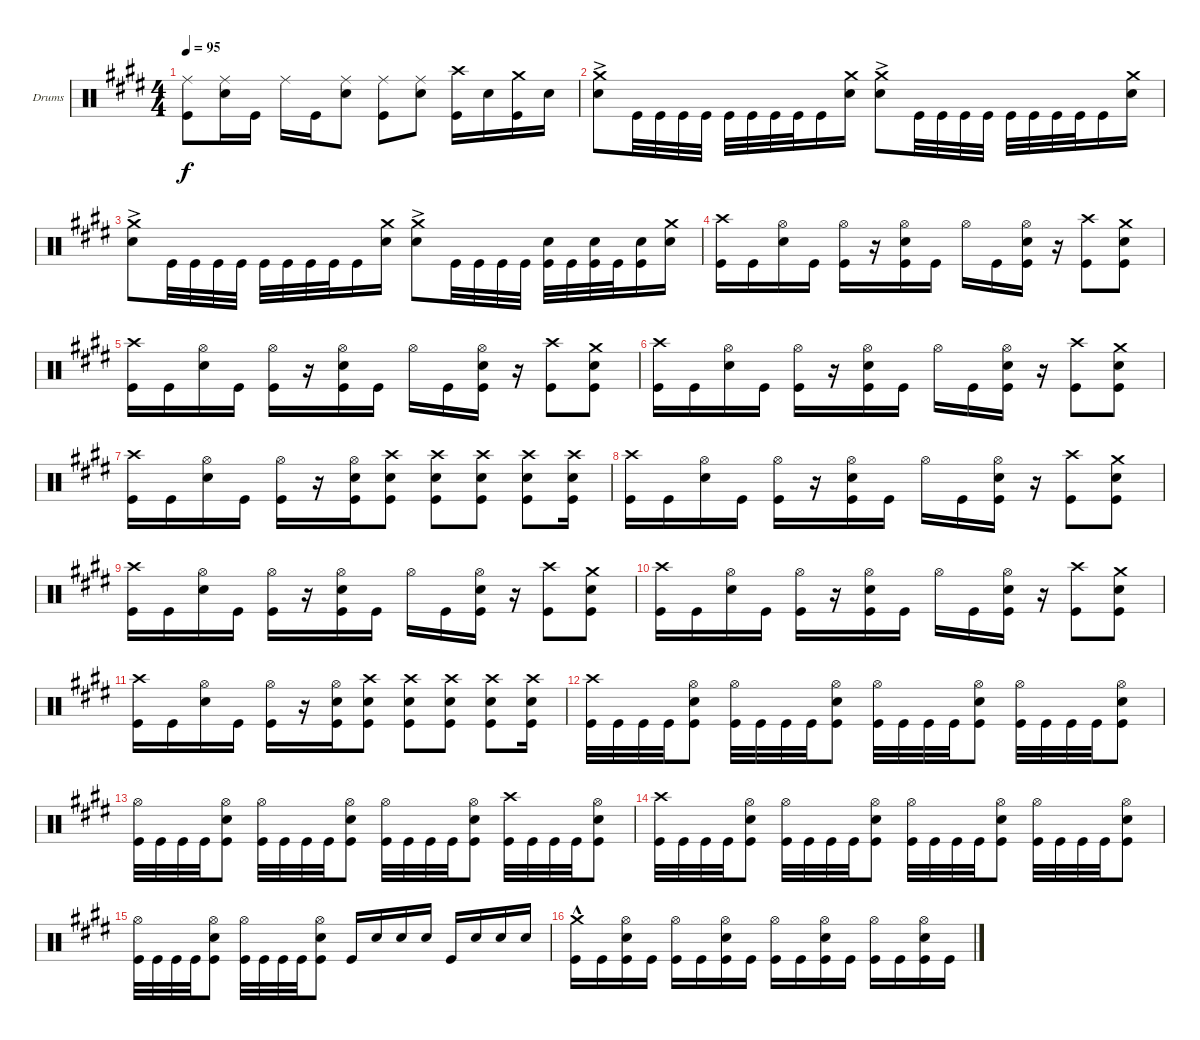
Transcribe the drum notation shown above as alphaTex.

\bracketExtendMode groupsimilarinstruments
\firstSystemTrackNameOrientation horizontal
\otherSystemsTrackNameOrientation horizontal
\track ("Drumkit" "Drums") {instrument percussion}
\staff {score}
\articulation defaults
\ts (4 4)
\tempo 95
\clef neutral
\ks c#minor
("Kick (hit)" "Ride (middle)").8{dy f} ("Snare (hit) 2" "Ride (middle)").16 "Kick (hit)".16 "Ride (middle)".16 "Kick (hit)".16 ("Snare (hit) 2" "Ride (middle)").8 ("Kick (hit)" "Ride (middle)").8 ("Snare (hit) 2" "Ride (middle)").8 ("Crash high (hit)" "Kick (hit)").16 "Snare (hit) 2".16 ("Crash medium (hit)" "Kick (hit)").16 "Snare (hit) 2".16 |
("Crash medium (hit)"{ac} "Snare (hit) 2").8 "Kick (hit)".32 "Kick (hit)".32 "Kick (hit)".32 "Kick (hit)".32 "Kick (hit)".32 "Kick (hit)".32 "Kick (hit)".32 "Kick (hit)".32 "Kick (hit)".16 ("Snare (hit) 2" "Crash medium (hit)").16 ("Crash medium (hit)"{ac} "Snare (hit) 2").8 "Kick (hit)".32 "Kick (hit)".32 "Kick (hit)".32 "Kick (hit)".32 "Kick (hit)".32 "Kick (hit)".32 "Kick (hit)".32 "Kick (hit)".32 "Kick (hit)".16 ("Snare (hit) 2" "Crash medium (hit)").16 |
("Crash medium (hit)"{ac} "Snare (hit) 2").8 "Kick (hit)".32 "Kick (hit)".32 "Kick (hit)".32 "Kick (hit)".32 "Kick (hit)".32 "Kick (hit)".32 "Kick (hit)".32 "Kick (hit)".32 "Kick (hit)".16 ("Snare (hit) 2" "Crash medium (hit)").16 ("Crash medium (hit)"{ac} "Snare (hit) 2").8 "Kick (hit)".32 "Kick (hit)".32 "Kick (hit)".32 "Kick (hit)".32 ("Kick (hit)" "Snare (hit) 2").32 "Kick (hit)".32 ("Kick (hit)" "Snare (hit) 2").32 "Kick (hit)".32 ("Kick (hit)" "Snare (hit) 2").16 ("Snare (hit) 2" "Crash medium (hit)").16 |
("Kick (hit)" "Crash high (hit)").16 "Kick (hit)".16 ("Snare (hit) 2" "Hi-Hat (open)").16 "Kick (hit)".16 ("Kick (hit)" "Hi-Hat (open)").16 r.16 ("Kick (hit)" "Hi-Hat (open)" "Snare (hit) 2").16 "Kick (hit)".16 "Hi-Hat (open)".16 "Kick (hit)".16 ("Kick (hit)" "Hi-Hat (open)" "Snare (hit) 2").16 r.16 ("Kick (hit)" "Crash high (hit)").8 ("Snare (hit) 2" "Kick (hit)" "Crash medium (hit)").8 |
("Kick (hit)" "Crash high (hit)").16 "Kick (hit)".16 ("Snare (hit) 2" "Hi-Hat (open)").16 "Kick (hit)".16 ("Kick (hit)" "Hi-Hat (open)").16 r.16 ("Kick (hit)" "Hi-Hat (open)" "Snare (hit) 2").16 "Kick (hit)".16 "Hi-Hat (open)".16 "Kick (hit)".16 ("Kick (hit)" "Hi-Hat (open)" "Snare (hit) 2").16 r.16 ("Kick (hit)" "Crash high (hit)").8 ("Snare (hit) 2" "Kick (hit)" "Crash medium (hit)").8 |
("Kick (hit)" "Crash high (hit)").16 "Kick (hit)".16 ("Snare (hit) 2" "Hi-Hat (open)").16 "Kick (hit)".16 ("Kick (hit)" "Hi-Hat (open)").16 r.16 ("Kick (hit)" "Hi-Hat (open)" "Snare (hit) 2").16 "Kick (hit)".16 "Hi-Hat (open)".16 "Kick (hit)".16 ("Kick (hit)" "Hi-Hat (open)" "Snare (hit) 2").16 r.16 ("Kick (hit)" "Crash high (hit)").8 ("Snare (hit) 2" "Kick (hit)" "Crash medium (hit)").8 |
("Kick (hit)" "Crash high (hit)").16 "Kick (hit)".16 ("Snare (hit) 2" "Hi-Hat (open)").16 "Kick (hit)".16 ("Kick (hit)" "Hi-Hat (open)").16 r.16 ("Kick (hit)" "Hi-Hat (open)" "Snare (hit) 2").16 ("Snare (hit) 2" "Kick (hit)" "Crash high (hit)").8 ("Snare (hit) 2" "Kick (hit)" "Crash high (hit)").8 ("Snare (hit) 2" "Kick (hit)" "Crash high (hit)").8 ("Snare (hit) 2" "Kick (hit)" "Crash high (hit)").8 ("Snare (hit) 2" "Kick (hit)" "Crash high (hit)").16 |
("Kick (hit)" "Crash high (hit)").16 "Kick (hit)".16 ("Snare (hit) 2" "Hi-Hat (open)").16 "Kick (hit)".16 ("Kick (hit)" "Hi-Hat (open)").16 r.16 ("Kick (hit)" "Hi-Hat (open)" "Snare (hit) 2").16 "Kick (hit)".16 "Hi-Hat (open)".16 "Kick (hit)".16 ("Kick (hit)" "Hi-Hat (open)" "Snare (hit) 2").16 r.16 ("Kick (hit)" "Crash high (hit)").8 ("Snare (hit) 2" "Kick (hit)" "Crash medium (hit)").8 |
("Kick (hit)" "Crash high (hit)").16 "Kick (hit)".16 ("Snare (hit) 2" "Hi-Hat (open)").16 "Kick (hit)".16 ("Kick (hit)" "Hi-Hat (open)").16 r.16 ("Kick (hit)" "Hi-Hat (open)" "Snare (hit) 2").16 "Kick (hit)".16 "Hi-Hat (open)".16 "Kick (hit)".16 ("Kick (hit)" "Hi-Hat (open)" "Snare (hit) 2").16 r.16 ("Kick (hit)" "Crash high (hit)").8 ("Snare (hit) 2" "Kick (hit)" "Crash medium (hit)").8 |
("Kick (hit)" "Crash high (hit)").16 "Kick (hit)".16 ("Snare (hit) 2" "Hi-Hat (open)").16 "Kick (hit)".16 ("Kick (hit)" "Hi-Hat (open)").16 r.16 ("Kick (hit)" "Hi-Hat (open)" "Snare (hit) 2").16 "Kick (hit)".16 "Hi-Hat (open)".16 "Kick (hit)".16 ("Kick (hit)" "Hi-Hat (open)" "Snare (hit) 2").16 r.16 ("Kick (hit)" "Crash high (hit)").8 ("Snare (hit) 2" "Kick (hit)" "Crash medium (hit)").8 |
("Kick (hit)" "Crash high (hit)").16 "Kick (hit)".16 ("Snare (hit) 2" "Hi-Hat (open)").16 "Kick (hit)".16 ("Kick (hit)" "Hi-Hat (open)").16 r.16 ("Kick (hit)" "Hi-Hat (open)" "Snare (hit) 2").16 ("Snare (hit) 2" "Kick (hit)" "Crash high (hit)").8 ("Snare (hit) 2" "Kick (hit)" "Crash high (hit)").8 ("Snare (hit) 2" "Kick (hit)" "Crash high (hit)").8 ("Snare (hit) 2" "Kick (hit)" "Crash high (hit)").8 ("Snare (hit) 2" "Kick (hit)" "Crash high (hit)").16 |
("Crash high (hit)" "Kick (hit)").32 "Kick (hit)".32 "Kick (hit)".32 "Kick (hit)".32 ("Kick (hit)" "Hi-Hat (open)" "Snare (hit) 2").8 ("Kick (hit)" "Hi-Hat (open)").32 "Kick (hit)".32 "Kick (hit)".32 "Kick (hit)".32 ("Kick (hit)" "Snare (hit) 2" "Hi-Hat (open)").8 ("Kick (hit)" "Hi-Hat (open)").32 "Kick (hit)".32 "Kick (hit)".32 "Kick (hit)".32 ("Kick (hit)" "Snare (hit) 2" "Hi-Hat (open)").8 ("Kick (hit)" "Hi-Hat (open)").32 "Kick (hit)".32 "Kick (hit)".32 "Kick (hit)".32 ("Kick (hit)" "Snare (hit) 2" "Hi-Hat (open)").8 |
("Kick (hit)" "Hi-Hat (open)").32 "Kick (hit)".32 "Kick (hit)".32 "Kick (hit)".32 ("Kick (hit)" "Snare (hit) 2" "Hi-Hat (open)").8 ("Kick (hit)" "Hi-Hat (open)").32 "Kick (hit)".32 "Kick (hit)".32 "Kick (hit)".32 ("Kick (hit)" "Snare (hit) 2" "Hi-Hat (open)").8 ("Kick (hit)" "Hi-Hat (open)").32 "Kick (hit)".32 "Kick (hit)".32 "Kick (hit)".32 ("Kick (hit)" "Snare (hit) 2" "Hi-Hat (open)").8 ("Kick (hit)" "Crash high (hit)").32 "Kick (hit)".32 "Kick (hit)".32 "Kick (hit)".32 ("Kick (hit)" "Snare (hit) 2" "Hi-Hat (open)").8 |
("Crash high (hit)" "Kick (hit)").32 "Kick (hit)".32 "Kick (hit)".32 "Kick (hit)".32 ("Kick (hit)" "Hi-Hat (open)" "Snare (hit) 2").8 ("Kick (hit)" "Hi-Hat (open)").32 "Kick (hit)".32 "Kick (hit)".32 "Kick (hit)".32 ("Kick (hit)" "Snare (hit) 2" "Hi-Hat (open)").8 ("Kick (hit)" "Hi-Hat (open)").32 "Kick (hit)".32 "Kick (hit)".32 "Kick (hit)".32 ("Kick (hit)" "Snare (hit) 2" "Hi-Hat (open)").8 ("Kick (hit)" "Hi-Hat (open)").32 "Kick (hit)".32 "Kick (hit)".32 "Kick (hit)".32 ("Kick (hit)" "Snare (hit) 2" "Hi-Hat (open)").8 |
("Kick (hit)" "Hi-Hat (open)").32 "Kick (hit)".32 "Kick (hit)".32 "Kick (hit)".32 ("Kick (hit)" "Snare (hit) 2" "Hi-Hat (open)").8 ("Kick (hit)" "Hi-Hat (open)").32 "Kick (hit)".32 "Kick (hit)".32 "Kick (hit)".32 ("Kick (hit)" "Snare (hit) 2" "Hi-Hat (open)").8 "Kick (hit)".16 "Snare (hit) 2".16 "Snare (hit) 2".16 "Snare (hit) 2".16 "Kick (hit)".16 "Snare (hit) 2".16 "Snare (hit) 2".16 "Snare (hit) 2".16 |
("Crash medium (hit)"{hac} "Kick (hit)").16 "Kick (hit)".16 ("Snare (hit) 2" "Kick (hit)" "Hi-Hat (open)").16 "Kick (hit)".16 ("Kick (hit)" "Hi-Hat (open)").16 "Kick (hit)".16 ("Snare (hit) 2" "Kick (hit)" "Hi-Hat (open)").16 "Kick (hit)".16 ("Kick (hit)" "Hi-Hat (open)").16 "Kick (hit)".16 ("Snare (hit) 2" "Kick (hit)" "Hi-Hat (open)").16 "Kick (hit)".16 ("Kick (hit)" "Hi-Hat (open)").16 "Kick (hit)".16 ("Snare (hit) 2" "Kick (hit)" "Hi-Hat (open)").16 "Kick (hit)".16
